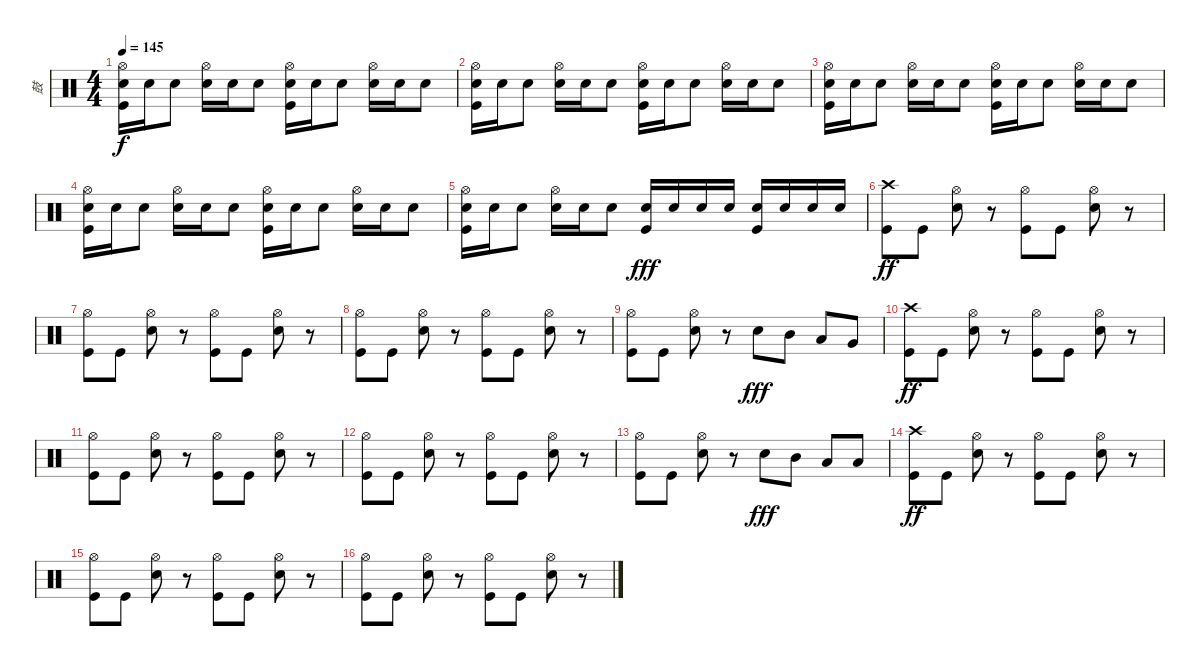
\track ("鼓" "鼓") {instrument percussion}
\staff {score}
\articulation defaults
\ts (4 4)
\tempo 145
\clef neutral
\ks c
("Hi-Hat (open)" "Snare (hit) 2" "Kick (hit)").16{dy f} "Snare (hit) 2".16 "Snare (hit) 2".8 ("Hi-Hat (open)" "Snare (hit) 2").16 "Snare (hit) 2".16 "Snare (hit) 2".8 ("Hi-Hat (open)" "Snare (hit) 2" "Kick (hit)").16 "Snare (hit) 2".16 "Snare (hit) 2".8 ("Hi-Hat (open)" "Snare (hit) 2").16 "Snare (hit) 2".16 "Snare (hit) 2".8 |
("Hi-Hat (open)" "Snare (hit) 2" "Kick (hit)").16 "Snare (hit) 2".16 "Snare (hit) 2".8 ("Hi-Hat (open)" "Snare (hit) 2").16 "Snare (hit) 2".16 "Snare (hit) 2".8 ("Hi-Hat (open)" "Snare (hit) 2" "Kick (hit)").16 "Snare (hit) 2".16 "Snare (hit) 2".8 ("Hi-Hat (open)" "Snare (hit) 2").16 "Snare (hit) 2".16 "Snare (hit) 2".8 |
("Hi-Hat (open)" "Snare (hit) 2" "Kick (hit)").16 "Snare (hit) 2".16 "Snare (hit) 2".8 ("Hi-Hat (open)" "Snare (hit) 2").16 "Snare (hit) 2".16 "Snare (hit) 2".8 ("Hi-Hat (open)" "Snare (hit) 2" "Kick (hit)").16 "Snare (hit) 2".16 "Snare (hit) 2".8 ("Hi-Hat (open)" "Snare (hit) 2").16 "Snare (hit) 2".16 "Snare (hit) 2".8 |
("Hi-Hat (open)" "Snare (hit) 2" "Kick (hit)").16 "Snare (hit) 2".16 "Snare (hit) 2".8 ("Hi-Hat (open)" "Snare (hit) 2").16 "Snare (hit) 2".16 "Snare (hit) 2".8 ("Hi-Hat (open)" "Snare (hit) 2" "Kick (hit)").16 "Snare (hit) 2".16 "Snare (hit) 2".8 ("Hi-Hat (open)" "Snare (hit) 2").16 "Snare (hit) 2".16 "Snare (hit) 2".8 |
("Hi-Hat (open)" "Snare (hit) 2" "Kick (hit)").16 "Snare (hit) 2".16 "Snare (hit) 2".8 ("Hi-Hat (open)" "Snare (hit) 2").16 "Snare (hit) 2".16 "Snare (hit) 2".8 ("Snare (hit) 2" "Kick (hit)").16{dy fff} "Snare (hit) 2".16 "Snare (hit) 2".16 "Snare (hit) 2".16 ("Snare (hit) 2" "Kick (hit)").16 "Snare (hit) 2".16 "Snare (hit) 2".16 "Snare (hit) 2".16 |
("Crash high (hit)" "Kick (hit)").8{dy ff} "Kick (hit)".8 ("Hi-Hat (open)" "Snare (hit) 2").8 r.8 ("Hi-Hat (open)" "Kick (hit)").8 "Kick (hit)".8 ("Hi-Hat (open)" "Snare (hit) 2").8 r.8 |
("Hi-Hat (open)" "Kick (hit)").8 "Kick (hit)".8 ("Hi-Hat (open)" "Snare (hit) 2").8 r.8 ("Hi-Hat (open)" "Kick (hit)").8 "Kick (hit)".8 ("Hi-Hat (open)" "Snare (hit) 2").8 r.8 |
("Hi-Hat (open)" "Kick (hit)").8 "Kick (hit)".8 ("Hi-Hat (open)" "Snare (hit) 2").8 r.8 ("Hi-Hat (open)" "Kick (hit)").8 "Kick (hit)".8 ("Hi-Hat (open)" "Snare (hit) 2").8 r.8 |
("Hi-Hat (open)" "Kick (hit)").8 "Kick (hit)".8 ("Hi-Hat (open)" "Snare (hit) 2").8 r.8 "Snare (hit) 2".8{dy fff} "Mid Tom (hit)".8 "Low Tom (hit)".8 "Very Low Tom (hit)".8 |
("Crash high (hit)" "Kick (hit)").8{dy ff} "Kick (hit)".8 ("Hi-Hat (open)" "Snare (hit) 2").8 r.8 ("Hi-Hat (open)" "Kick (hit)").8 "Kick (hit)".8 ("Hi-Hat (open)" "Snare (hit) 2").8 r.8 |
("Hi-Hat (open)" "Kick (hit)").8 "Kick (hit)".8 ("Hi-Hat (open)" "Snare (hit) 2").8 r.8 ("Hi-Hat (open)" "Kick (hit)").8 "Kick (hit)".8 ("Hi-Hat (open)" "Snare (hit) 2").8 r.8 |
("Hi-Hat (open)" "Kick (hit)").8 "Kick (hit)".8 ("Hi-Hat (open)" "Snare (hit) 2").8 r.8 ("Hi-Hat (open)" "Kick (hit)").8 "Kick (hit)".8 ("Hi-Hat (open)" "Snare (hit) 2").8 r.8 |
("Hi-Hat (open)" "Kick (hit)").8 "Kick (hit)".8 ("Hi-Hat (open)" "Snare (hit) 2").8 r.8 "Snare (hit) 2".8{dy fff} "Mid Tom (hit)".8 "Low Tom (hit)".8 "Low Tom (hit)".8 |
("Crash high (hit)" "Kick (hit)").8{dy ff} "Kick (hit)".8 ("Hi-Hat (open)" "Snare (hit) 2").8 r.8 ("Hi-Hat (open)" "Kick (hit)").8 "Kick (hit)".8 ("Hi-Hat (open)" "Snare (hit) 2").8 r.8 |
("Hi-Hat (open)" "Kick (hit)").8 "Kick (hit)".8 ("Hi-Hat (open)" "Snare (hit) 2").8 r.8 ("Hi-Hat (open)" "Kick (hit)").8 "Kick (hit)".8 ("Hi-Hat (open)" "Snare (hit) 2").8 r.8 |
("Hi-Hat (open)" "Kick (hit)").8 "Kick (hit)".8 ("Hi-Hat (open)" "Snare (hit) 2").8 r.8 ("Hi-Hat (open)" "Kick (hit)").8 "Kick (hit)".8 ("Hi-Hat (open)" "Snare (hit) 2").8 r.8
